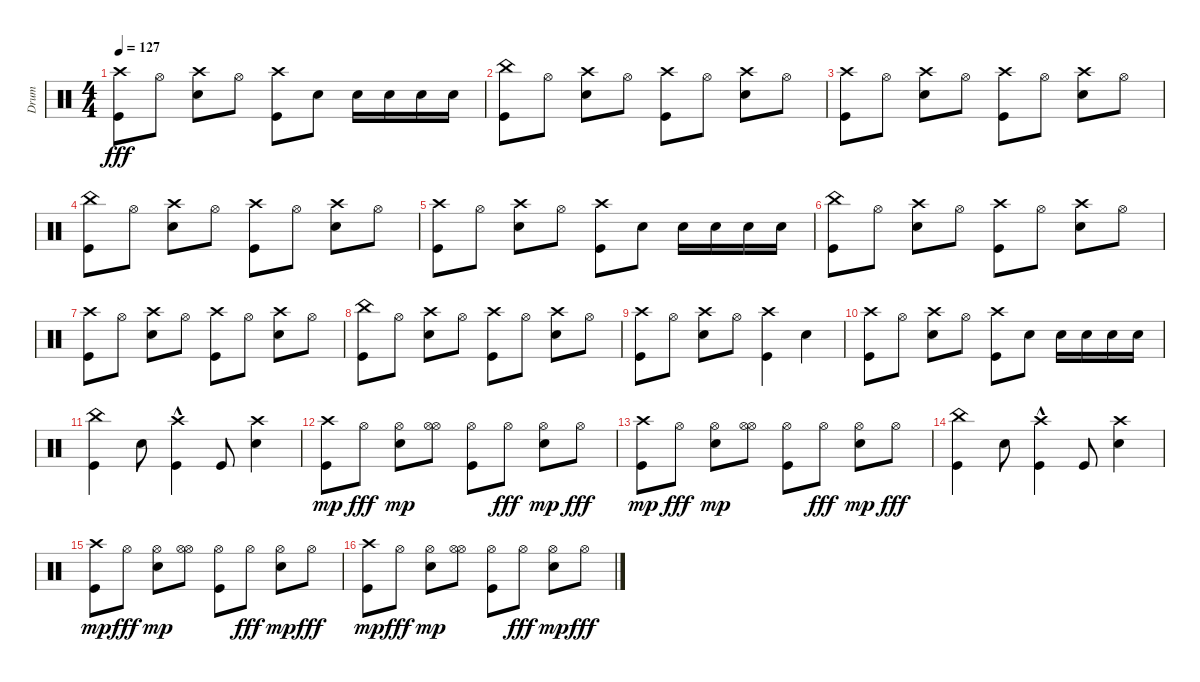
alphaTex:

\track ("Drum" "Drum") {instrument percussion}
\staff {score}
\articulation defaults
\ts (4 4)
\tempo 127
\clef neutral
\ks c
("Kick (hit)" "Crash high (hit)").8{dy fff} "Hi-Hat (open)".8 ("Crash high (hit)" "Electric Snare (hit)").8 "Hi-Hat (open)".8 ("Kick (hit)" "Crash high (hit)").8 "Electric Snare (hit)".8 "Electric Snare (hit)".16 "Electric Snare (hit)".16 "Electric Snare (hit)".16 "Electric Snare (hit)".16 |
("Kick (hit)" "China (hit)").8 "Hi-Hat (open)".8 ("Crash high (hit)" "Electric Snare (hit)").8 "Hi-Hat (open)".8 ("Kick (hit)" "Crash high (hit)").8 "Hi-Hat (open)".8 ("Crash high (hit)" "Electric Snare (hit)").8 "Hi-Hat (open)".8 |
("Kick (hit)" "Crash high (hit)").8 "Hi-Hat (open)".8 ("Crash high (hit)" "Electric Snare (hit)").8 "Hi-Hat (open)".8 ("Kick (hit)" "Crash high (hit)").8 "Hi-Hat (open)".8 ("Crash high (hit)" "Electric Snare (hit)").8 "Hi-Hat (open)".8 |
("Kick (hit)" "China (hit)").8 "Hi-Hat (open)".8 ("Crash high (hit)" "Electric Snare (hit)").8 "Hi-Hat (open)".8 ("Kick (hit)" "Crash high (hit)").8 "Hi-Hat (open)".8 ("Crash high (hit)" "Electric Snare (hit)").8 "Hi-Hat (open)".8 |
("Kick (hit)" "Crash high (hit)").8 "Hi-Hat (open)".8 ("Crash high (hit)" "Electric Snare (hit)").8 "Hi-Hat (open)".8 ("Kick (hit)" "Crash high (hit)").8 "Electric Snare (hit)".8 "Electric Snare (hit)".16 "Electric Snare (hit)".16 "Electric Snare (hit)".16 "Electric Snare (hit)".16 |
("Kick (hit)" "China (hit)").8 "Hi-Hat (open)".8 ("Crash high (hit)" "Electric Snare (hit)").8 "Hi-Hat (open)".8 ("Kick (hit)" "Crash high (hit)").8 "Hi-Hat (open)".8 ("Crash high (hit)" "Electric Snare (hit)").8 "Hi-Hat (open)".8 |
("Kick (hit)" "Crash high (hit)").8 "Hi-Hat (open)".8 ("Crash high (hit)" "Electric Snare (hit)").8 "Hi-Hat (open)".8 ("Kick (hit)" "Crash high (hit)").8 "Hi-Hat (open)".8 ("Crash high (hit)" "Electric Snare (hit)").8 "Hi-Hat (open)".8 |
("Kick (hit)" "China (hit)").8 "Hi-Hat (open)".8 ("Crash high (hit)" "Electric Snare (hit)").8 "Hi-Hat (open)".8 ("Kick (hit)" "Crash high (hit)").8 "Hi-Hat (open)".8 ("Crash high (hit)" "Electric Snare (hit)").8 "Hi-Hat (open)".8 |
("Kick (hit)" "Crash high (hit)").8 "Hi-Hat (open)".8 ("Crash high (hit)" "Electric Snare (hit)").8 "Hi-Hat (open)".8 ("Kick (hit)" "Crash high (hit)").4 "Electric Snare (hit)".4 |
("Kick (hit)" "Crash high (hit)").8 "Hi-Hat (open)".8 ("Crash high (hit)" "Electric Snare (hit)").8 "Hi-Hat (open)".8 ("Kick (hit)" "Crash high (hit)").8 "Electric Snare (hit)".8 "Electric Snare (hit)".16 "Electric Snare (hit)".16 "Electric Snare (hit)".16 "Electric Snare (hit)".16 |
("Kick (hit)" "China (hit)").4 "Electric Snare (hit)".8 ("Crash high (hit)"{hac} "Kick (hit)").4 "Kick (hit)".8 ("Crash high (hit)" "Electric Snare (hit)").4 |
("Crash high (hit)" "Kick (hit)").8{dy mp} "Hi-Hat (open)".8{dy fff} ("Electric Snare (hit)" "Hi-Hat (open)").8{dy mp} ("Hi-Hat (open)" "Hi-Hat (open)").8 ("Kick (hit)" "Hi-Hat (open)").8 "Hi-Hat (open)".8{dy fff} ("Electric Snare (hit)" "Hi-Hat (open)").8{dy mp} "Hi-Hat (open)".8{dy fff} |
("Crash high (hit)" "Kick (hit)").8{dy mp} "Hi-Hat (open)".8{dy fff} ("Electric Snare (hit)" "Hi-Hat (open)").8{dy mp} ("Hi-Hat (open)" "Hi-Hat (open)").8 ("Kick (hit)" "Hi-Hat (open)").8 "Hi-Hat (open)".8{dy fff} ("Electric Snare (hit)" "Hi-Hat (open)").8{dy mp} "Hi-Hat (open)".8{dy fff} |
("Kick (hit)" "China (hit)").4 "Electric Snare (hit)".8 ("Crash high (hit)"{hac} "Kick (hit)").4 "Kick (hit)".8 ("Crash high (hit)" "Electric Snare (hit)").4 |
("Crash high (hit)" "Kick (hit)").8{dy mp} "Hi-Hat (open)".8{dy fff} ("Electric Snare (hit)" "Hi-Hat (open)").8{dy mp} ("Hi-Hat (open)" "Hi-Hat (open)").8 ("Kick (hit)" "Hi-Hat (open)").8 "Hi-Hat (open)".8{dy fff} ("Electric Snare (hit)" "Hi-Hat (open)").8{dy mp} "Hi-Hat (open)".8{dy fff} |
("Crash high (hit)" "Kick (hit)").8{dy mp} "Hi-Hat (open)".8{dy fff} ("Electric Snare (hit)" "Hi-Hat (open)").8{dy mp} ("Hi-Hat (open)" "Hi-Hat (open)").8 ("Kick (hit)" "Hi-Hat (open)").8 "Hi-Hat (open)".8{dy fff} ("Electric Snare (hit)" "Hi-Hat (open)").8{dy mp} "Hi-Hat (open)".8{dy fff}
